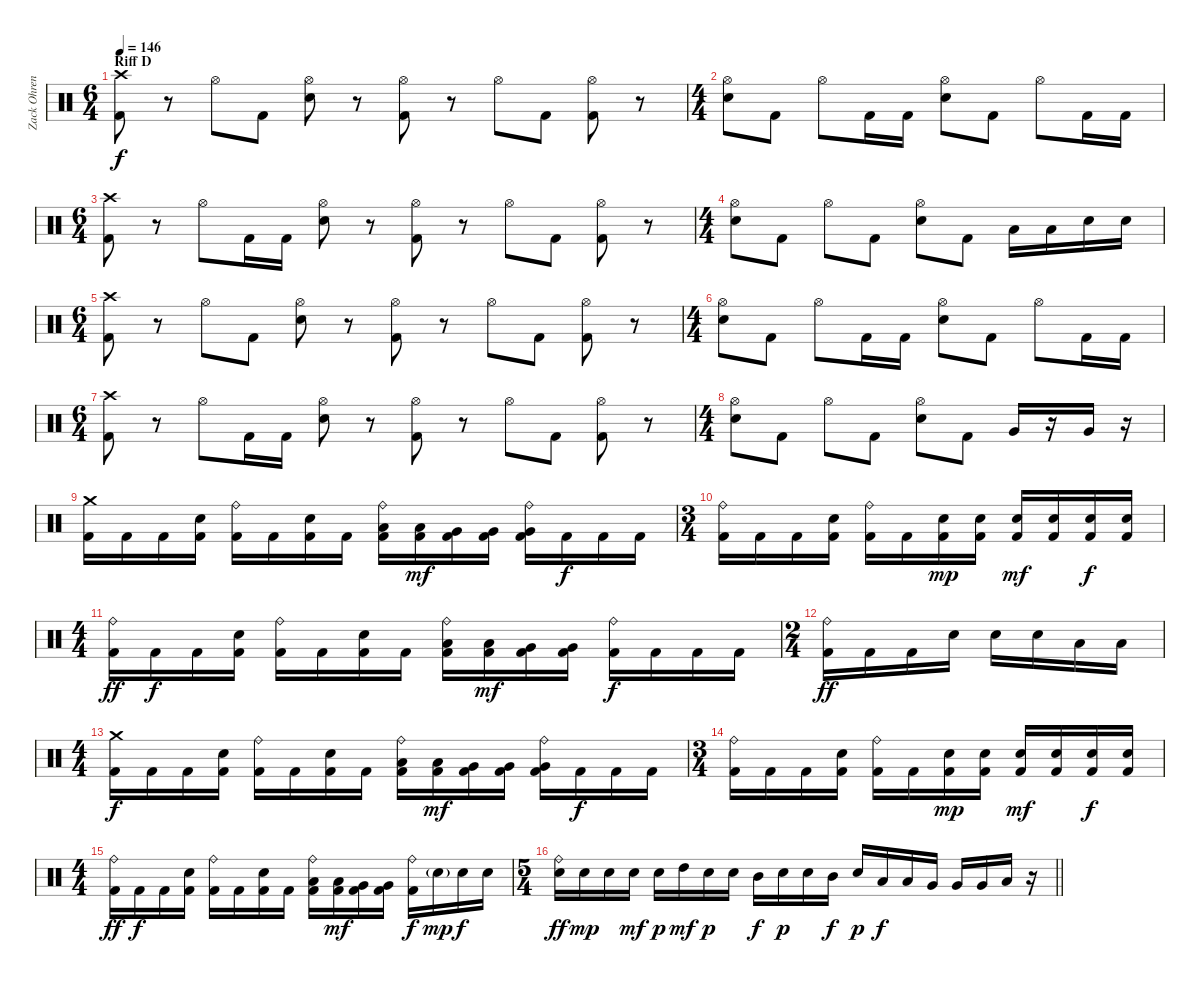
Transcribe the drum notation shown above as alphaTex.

\track ("Zack Ohren" "Zack Ohren") {instrument percussion}
\staff {score}
\articulation defaults
\ts (6 4)
\section ("" "Riff D")
\tempo 146
\clef neutral
\ks c
("Kick (hit) 2" "Crash high (hit)").8{dy f} r.8 "Hi-Hat (open)".8 "Kick (hit) 2".8 ("Electric Snare (hit)" "Hi-Hat (open)").8 r.8 ("Kick (hit) 2" "Hi-Hat (open)").8 r.8 "Hi-Hat (open)".8 "Kick (hit) 2".8 ("Kick (hit) 2" "Hi-Hat (open)").8 r.8 |
\ts (4 4)
("Electric Snare (hit)" "Hi-Hat (open)").8 "Kick (hit) 2".8 "Hi-Hat (open)".8 "Kick (hit) 2".16 "Kick (hit) 2".16 ("Electric Snare (hit)" "Hi-Hat (open)").8 "Kick (hit) 2".8 "Hi-Hat (open)".8 "Kick (hit) 2".16 "Kick (hit) 2".16 |
\ts (6 4)
("Kick (hit) 2" "Crash high (hit)").8 r.8 "Hi-Hat (open)".8 "Kick (hit) 2".16 "Kick (hit) 2".16 ("Electric Snare (hit)" "Hi-Hat (open)").8 r.8 ("Kick (hit) 2" "Hi-Hat (open)").8 r.8 "Hi-Hat (open)".8 "Kick (hit) 2".8 ("Kick (hit) 2" "Hi-Hat (open)").8 r.8 |
\ts (4 4)
("Electric Snare (hit)" "Hi-Hat (open)").8 "Kick (hit) 2".8 "Hi-Hat (open)".8 "Kick (hit) 2".8 ("Electric Snare (hit)" "Hi-Hat (open)").8 "Kick (hit) 2".8 "Low Tom (hit)".16 "Low Tom (hit)".16 "Electric Snare (hit)".16 "Electric Snare (hit)".16 |
\ts (6 4)
("Kick (hit) 2" "Crash high (hit)").8 r.8 "Hi-Hat (open)".8 "Kick (hit) 2".8 ("Electric Snare (hit)" "Hi-Hat (open)").8 r.8 ("Kick (hit) 2" "Hi-Hat (open)").8 r.8 "Hi-Hat (open)".8 "Kick (hit) 2".8 ("Kick (hit) 2" "Hi-Hat (open)").8 r.8 |
\ts (4 4)
("Electric Snare (hit)" "Hi-Hat (open)").8 "Kick (hit) 2".8 "Hi-Hat (open)".8 "Kick (hit) 2".16 "Kick (hit) 2".16 ("Electric Snare (hit)" "Hi-Hat (open)").8 "Kick (hit) 2".8 "Hi-Hat (open)".8 "Kick (hit) 2".16 "Kick (hit) 2".16 |
\ts (6 4)
("Kick (hit) 2" "Crash high (hit)").8 r.8 "Hi-Hat (open)".8 "Kick (hit) 2".16 "Kick (hit) 2".16 ("Electric Snare (hit)" "Hi-Hat (open)").8 r.8 ("Kick (hit) 2" "Hi-Hat (open)").8 r.8 "Hi-Hat (open)".8 "Kick (hit) 2".8 ("Kick (hit) 2" "Hi-Hat (open)").8 r.8 |
\ts (4 4)
("Electric Snare (hit)" "Hi-Hat (open)").8 "Kick (hit) 2".8 "Hi-Hat (open)".8 "Kick (hit) 2".8 ("Electric Snare (hit)" "Hi-Hat (open)").8 "Kick (hit) 2".8 "Very Low Tom (hit)".16 r.16 "Very Low Tom (hit)".16 r.16 |
("Crash medium (hit)" "Kick (hit) 2").16 "Kick (hit) 2".16 "Kick (hit) 2".16 ("Electric Snare (hit)" "Kick (hit) 2").16 ("Kick (hit) 2" "Ride (bell)").16 "Kick (hit) 2".16 ("Electric Snare (hit)" "Kick (hit) 2").16 "Kick (hit) 2".16 ("Low Tom (hit)" "Kick (hit) 2" "Ride (bell)").16 ("Low Tom (hit)" "Kick (hit) 2").16{dy mf} ("Very Low Tom (hit)" "Kick (hit) 2").16 ("Very Low Tom (hit)" "Kick (hit) 2").16 ("Very Low Tom (hit)" "Kick (hit) 2" "Ride (bell)").16 "Kick (hit) 2".16{dy f} "Kick (hit) 2".16 "Kick (hit) 2".16 |
\ts (3 4)
("Kick (hit) 2" "Ride (bell)").16 "Kick (hit) 2".16 "Kick (hit) 2".16 ("Electric Snare (hit)" "Kick (hit) 2").16 ("Kick (hit) 2" "Ride (bell)").16 "Kick (hit) 2".16 ("Electric Snare (hit)" "Kick (hit) 2").16{dy mp} ("Electric Snare (hit)" "Kick (hit) 2").16 ("Electric Snare (hit)" "Kick (hit) 2").16{dy mf} ("Electric Snare (hit)" "Kick (hit) 2").16 ("Electric Snare (hit)" "Kick (hit) 2").16{dy f} ("Electric Snare (hit)" "Kick (hit) 2").16 |
\ts (4 4)
("Ride (bell)" "Kick (hit) 2").16{dy ff} "Kick (hit) 2".16{dy f} "Kick (hit) 2".16 ("Electric Snare (hit)" "Kick (hit) 2").16 ("Kick (hit) 2" "Ride (bell)").16 "Kick (hit) 2".16 ("Electric Snare (hit)" "Kick (hit) 2").16 "Kick (hit) 2".16 ("Low Tom (hit)" "Kick (hit) 2" "Ride (bell)").16 ("Low Tom (hit)" "Kick (hit) 2").16{dy mf} ("Very Low Tom (hit)" "Kick (hit) 2").16 ("Very Low Tom (hit)" "Kick (hit) 2").16 ("Kick (hit) 2" "Ride (bell)").16{dy f} "Kick (hit) 2".16 "Kick (hit) 2".16 "Kick (hit) 2".16 |
\ts (2 4)
("Kick (hit) 2" "Ride (bell)").16{dy ff} "Kick (hit) 2".16 "Kick (hit) 2".16 "Electric Snare (hit)".16 "Electric Snare (hit)".16 "Electric Snare (hit)".16 "Low Tom (hit)".16 "Low Tom (hit)".16 |
\ts (4 4)
("Crash medium (hit)" "Kick (hit) 2").16{dy f} "Kick (hit) 2".16 "Kick (hit) 2".16 ("Electric Snare (hit)" "Kick (hit) 2").16 ("Kick (hit) 2" "Ride (bell)").16 "Kick (hit) 2".16 ("Electric Snare (hit)" "Kick (hit) 2").16 "Kick (hit) 2".16 ("Low Tom (hit)" "Kick (hit) 2" "Ride (bell)").16 ("Low Tom (hit)" "Kick (hit) 2").16{dy mf} ("Very Low Tom (hit)" "Kick (hit) 2").16 ("Very Low Tom (hit)" "Kick (hit) 2").16 ("Very Low Tom (hit)" "Kick (hit) 2" "Ride (bell)").16 "Kick (hit) 2".16{dy f} "Kick (hit) 2".16 "Kick (hit) 2".16 |
\ts (3 4)
("Kick (hit) 2" "Ride (bell)").16 "Kick (hit) 2".16 "Kick (hit) 2".16 ("Electric Snare (hit)" "Kick (hit) 2").16 ("Kick (hit) 2" "Ride (bell)").16 "Kick (hit) 2".16 ("Electric Snare (hit)" "Kick (hit) 2").16{dy mp} ("Electric Snare (hit)" "Kick (hit) 2").16 ("Electric Snare (hit)" "Kick (hit) 2").16{dy mf} ("Electric Snare (hit)" "Kick (hit) 2").16 ("Electric Snare (hit)" "Kick (hit) 2").16{dy f} ("Electric Snare (hit)" "Kick (hit) 2").16 |
\ts (4 4)
("Ride (bell)" "Kick (hit) 2").16{dy ff} "Kick (hit) 2".16{dy f} "Kick (hit) 2".16 ("Electric Snare (hit)" "Kick (hit) 2").16 ("Kick (hit) 2" "Ride (bell)").16 "Kick (hit) 2".16 ("Electric Snare (hit)" "Kick (hit) 2").16 "Kick (hit) 2".16 ("Low Tom (hit)" "Kick (hit) 2" "Ride (bell)").16 ("Low Tom (hit)" "Kick (hit) 2").16{dy mf} ("Very Low Tom (hit)" "Kick (hit) 2").16 ("Very Low Tom (hit)" "Kick (hit) 2").16 ("Kick (hit) 2" "Ride (bell)").16{dy f} "Electric Snare (hit)"{g}.16{dy mp} "Electric Snare (hit)".16{dy f} "Electric Snare (hit)".16 |
\ts (5 4)
\barLineRight lightlight
("Electric Snare (hit)" "Ride (bell)").16{dy ff} "Electric Snare (hit)".16{dy mp} "Electric Snare (hit)".16 "Electric Snare (hit)".16{dy mf} "Electric Snare (hit)".16{dy p} "High Tom (hit)".16{dy mf} "Electric Snare (hit)".16{dy p} "Electric Snare (hit)".16 "Mid Tom (hit)".16{dy f} "Electric Snare (hit)".16{dy p} "Electric Snare (hit)".16 "Mid Tom (hit)".16{dy f} "Electric Snare (hit)".16{dy p} "Low Tom (hit)".16{dy f} "Low Tom (hit)".16 "Very Low Tom (hit)".16 "Very Low Tom (hit)".16 "Very Low Tom (hit)".16 "Low Floor Tom (hit)".16 r.16
